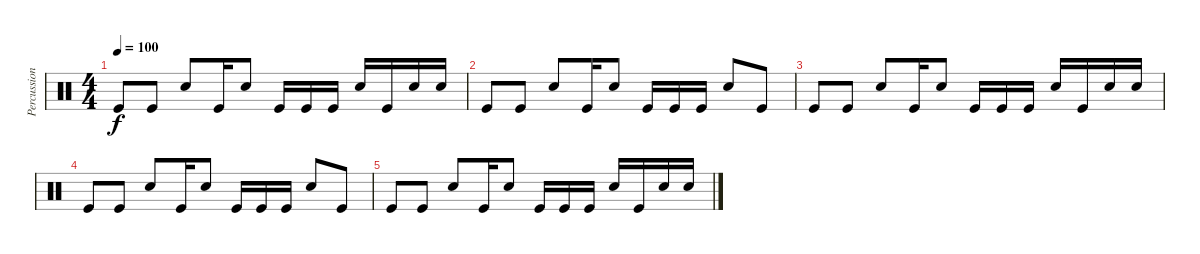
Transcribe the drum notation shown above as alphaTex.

\track ("Percussions" "Percussion") {instrument percussion}
\staff {score}
\articulation defaults
\ts (4 4)
\tempo 100
\clef neutral
\ks c "Kick (hit)".8{dy f} "Kick (hit)".8 "Electric Snare (hit)".8 "Kick (hit)".16 "Electric Snare (hit)".8 "Kick (hit)".16 "Kick (hit)".16 "Kick (hit)".16 "Electric Snare (hit)".16 "Kick (hit)".16 "Electric Snare (hit)".16 "Electric Snare (hit)".16
|
"Kick (hit)".8 "Kick (hit)".8 "Electric Snare (hit)".8 "Kick (hit)".16 "Electric Snare (hit)".8 "Kick (hit)".16 "Kick (hit)".16 "Kick (hit)".16 "Electric Snare (hit)".8 "Kick (hit)".8 |
"Kick (hit)".8 "Kick (hit)".8 "Electric Snare (hit)".8 "Kick (hit)".16 "Electric Snare (hit)".8 "Kick (hit)".16 "Kick (hit)".16 "Kick (hit)".16 "Electric Snare (hit)".16 "Kick (hit)".16 "Electric Snare (hit)".16 "Electric Snare (hit)".16 |
"Kick (hit)".8 "Kick (hit)".8 "Electric Snare (hit)".8 "Kick (hit)".16 "Electric Snare (hit)".8 "Kick (hit)".16 "Kick (hit)".16 "Kick (hit)".16 "Electric Snare (hit)".8 "Kick (hit)".8 |
"Kick (hit)".8 "Kick (hit)".8 "Electric Snare (hit)".8 "Kick (hit)".16 "Electric Snare (hit)".8 "Kick (hit)".16 "Kick (hit)".16 "Kick (hit)".16 "Electric Snare (hit)".16 "Kick (hit)".16 "Electric Snare (hit)".16 "Electric Snare (hit)".16
